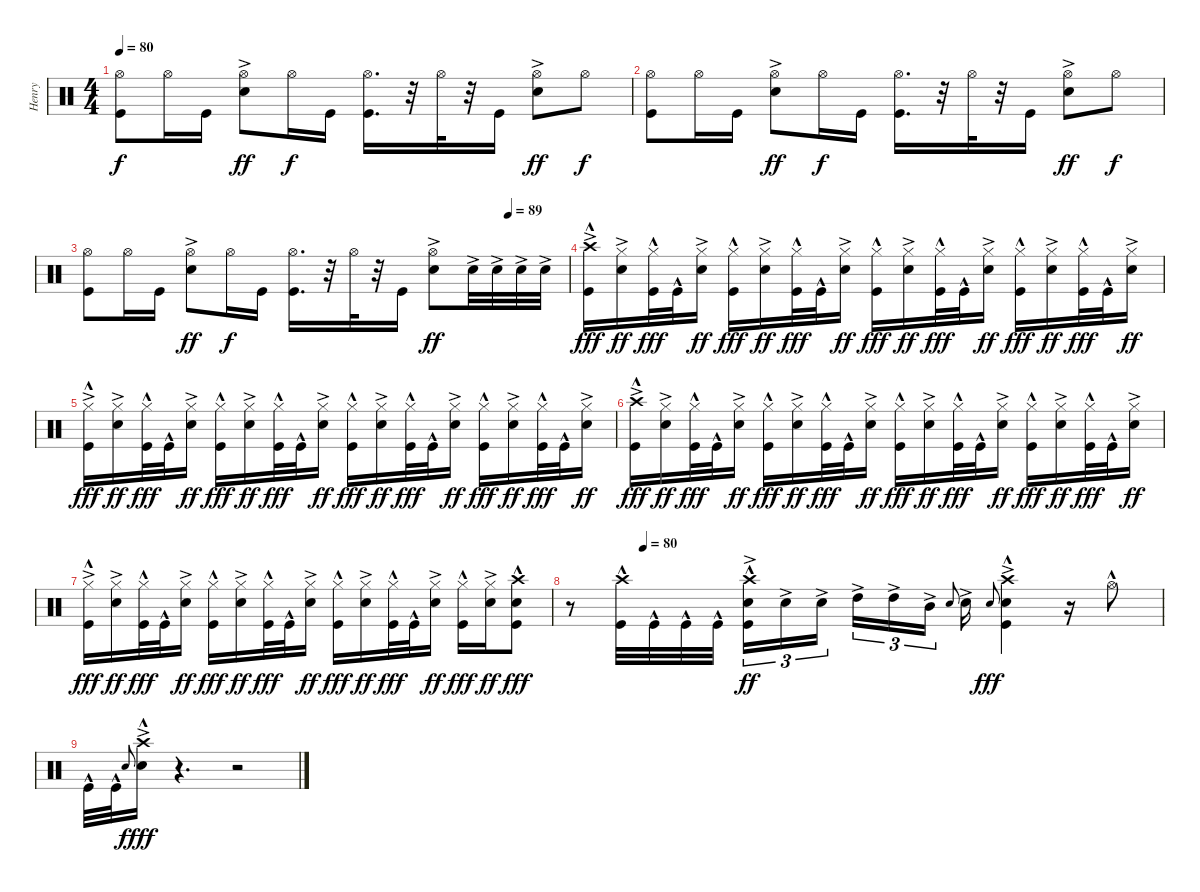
\track ("Henry" "Henry") {instrument percussion}
\staff {score}
\articulation defaults
\ts (4 4)
\tempo 80
\clef neutral
\ks c
("Hi-Hat (open)" "Kick (hit)").8{dy f} "Hi-Hat (open)".16 "Kick (hit)".16 ("Hi-Hat (open)" "Snare (hit) 2"{ac}).8{dy ff} "Hi-Hat (open)".16{dy f} "Kick (hit)".16 ("Hi-Hat (open)" "Kick (hit)").16{d} r.32 "Hi-Hat (open)".32 r.32 "Kick (hit)".16 ("Hi-Hat (open)" "Snare (hit) 2"{ac}).8{dy ff} "Hi-Hat (open)".8{dy f} |
("Hi-Hat (open)" "Kick (hit)").8 "Hi-Hat (open)".16 "Kick (hit)".16 ("Hi-Hat (open)" "Snare (hit) 2"{ac}).8{dy ff} "Hi-Hat (open)".16{dy f} "Kick (hit)".16 ("Hi-Hat (open)" "Kick (hit)").16{d} r.32 "Hi-Hat (open)".32 r.32 "Kick (hit)".16 ("Hi-Hat (open)" "Snare (hit) 2"{ac}).8{dy ff} "Hi-Hat (open)".8{dy f} |
\tempo (89 0.875)
("Hi-Hat (open)" "Kick (hit)").8 "Hi-Hat (open)".16 "Kick (hit)".16 ("Hi-Hat (open)" "Snare (hit) 2"{ac}).8{dy ff} "Hi-Hat (open)".16{dy f} "Kick (hit)".16 ("Hi-Hat (open)" "Kick (hit)").16{d} r.32 "Hi-Hat (open)".32 r.32 "Kick (hit)".16 ("Hi-Hat (open)" "Snare (hit) 2"{ac}).8{dy ff} "Snare (hit) 2"{ac}.32 "Snare (hit) 2"{ac}.32 "Snare (hit) 2"{ac}.32 "Snare (hit) 2"{ac}.32 |
("Crash high (hit)"{ac} "Kick (hit)"{hac}).16{dy fff} ("Hi-Hat (closed)" "Snare (hit) 2"{ac}).16{dy ff} ("Hi-Hat (closed)" "Kick (hit)"{hac}).32{dy fff} "Kick (hit)"{hac}.32 ("Hi-Hat (closed)" "Snare (hit) 2"{ac}).16{dy ff} ("Hi-Hat (closed)" "Kick (hit)"{hac}).16{dy fff} ("Hi-Hat (closed)" "Snare (hit) 2"{ac}).16{dy ff} ("Hi-Hat (closed)" "Kick (hit)"{hac}).32{dy fff} "Kick (hit)"{hac}.32 ("Hi-Hat (closed)" "Snare (hit) 2"{ac}).16{dy ff} ("Hi-Hat (closed)" "Kick (hit)"{hac}).16{dy fff} ("Hi-Hat (closed)" "Snare (hit) 2"{ac}).16{dy ff} ("Hi-Hat (closed)" "Kick (hit)"{hac}).32{dy fff} "Kick (hit)"{hac}.32 ("Hi-Hat (closed)" "Snare (hit) 2"{ac}).16{dy ff} ("Hi-Hat (closed)" "Kick (hit)"{hac}).16{dy fff} ("Hi-Hat (closed)" "Snare (hit) 2"{ac}).16{dy ff} ("Hi-Hat (closed)" "Kick (hit)"{hac}).32{dy fff} "Kick (hit)"{hac}.32 ("Hi-Hat (closed)" "Snare (hit) 2"{ac}).16{dy ff} |
("Hi-Hat (closed)"{ac} "Kick (hit)"{hac}).16{dy fff} ("Hi-Hat (closed)" "Snare (hit) 2"{ac}).16{dy ff} ("Hi-Hat (closed)" "Kick (hit)"{hac}).32{dy fff} "Kick (hit)"{hac}.32 ("Hi-Hat (closed)" "Snare (hit) 2"{ac}).16{dy ff} ("Hi-Hat (closed)" "Kick (hit)"{hac}).16{dy fff} ("Hi-Hat (closed)" "Snare (hit) 2"{ac}).16{dy ff} ("Hi-Hat (closed)" "Kick (hit)"{hac}).32{dy fff} "Kick (hit)"{hac}.32 ("Hi-Hat (closed)" "Snare (hit) 2"{ac}).16{dy ff} ("Hi-Hat (closed)" "Kick (hit)"{hac}).16{dy fff} ("Hi-Hat (closed)" "Snare (hit) 2"{ac}).16{dy ff} ("Hi-Hat (closed)" "Kick (hit)"{hac}).32{dy fff} "Kick (hit)"{hac}.32 ("Hi-Hat (closed)" "Snare (hit) 2"{ac}).16{dy ff} ("Hi-Hat (closed)" "Kick (hit)"{hac}).16{dy fff} ("Hi-Hat (closed)" "Snare (hit) 2"{ac}).16{dy ff} ("Hi-Hat (closed)" "Kick (hit)"{hac}).32{dy fff} "Kick (hit)"{hac}.32 ("Hi-Hat (closed)" "Snare (hit) 2"{ac}).16{dy ff} |
("Crash high (hit)"{ac} "Kick (hit)"{hac}).16{dy fff} ("Hi-Hat (closed)" "Snare (hit) 2"{ac}).16{dy ff} ("Hi-Hat (closed)" "Kick (hit)"{hac}).32{dy fff} "Kick (hit)"{hac}.32 ("Hi-Hat (closed)" "Snare (hit) 2"{ac}).16{dy ff} ("Hi-Hat (closed)" "Kick (hit)"{hac}).16{dy fff} ("Hi-Hat (closed)" "Snare (hit) 2"{ac}).16{dy ff} ("Hi-Hat (closed)" "Kick (hit)"{hac}).32{dy fff} "Kick (hit)"{hac}.32 ("Hi-Hat (closed)" "Snare (hit) 2"{ac}).16{dy ff} ("Hi-Hat (closed)" "Kick (hit)"{hac}).16{dy fff} ("Hi-Hat (closed)" "Snare (hit) 2"{ac}).16{dy ff} ("Hi-Hat (closed)" "Kick (hit)"{hac}).32{dy fff} "Kick (hit)"{hac}.32 ("Hi-Hat (closed)" "Snare (hit) 2"{ac}).16{dy ff} ("Hi-Hat (closed)" "Kick (hit)"{hac}).16{dy fff} ("Hi-Hat (closed)" "Snare (hit) 2"{ac}).16{dy ff} ("Hi-Hat (closed)" "Kick (hit)"{hac}).32{dy fff} "Kick (hit)"{hac}.32 ("Hi-Hat (closed)" "Snare (hit) 2"{ac}).16{dy ff} |
("Hi-Hat (closed)"{ac} "Kick (hit)"{hac}).16{dy fff} ("Hi-Hat (closed)" "Snare (hit) 2"{ac}).16{dy ff} ("Hi-Hat (closed)" "Kick (hit)"{hac}).32{dy fff} "Kick (hit)"{hac}.32 ("Hi-Hat (closed)" "Snare (hit) 2"{ac}).16{dy ff} ("Hi-Hat (closed)" "Kick (hit)"{hac}).16{dy fff} ("Hi-Hat (closed)" "Snare (hit) 2"{ac}).16{dy ff} ("Hi-Hat (closed)" "Kick (hit)"{hac}).32{dy fff} "Kick (hit)"{hac}.32 ("Hi-Hat (closed)" "Snare (hit) 2"{ac}).16{dy ff} ("Hi-Hat (closed)" "Kick (hit)"{hac}).16{dy fff} ("Hi-Hat (closed)" "Snare (hit) 2"{ac}).16{dy ff} ("Hi-Hat (closed)" "Kick (hit)"{hac}).32{dy fff} "Kick (hit)"{hac}.32 ("Hi-Hat (closed)" "Snare (hit) 2"{ac}).16{dy ff} ("Hi-Hat (closed)" "Kick (hit)"{hac}).16{dy fff} ("Hi-Hat (closed)" "Snare (hit) 2"{ac}).16{dy ff} ("Crash high (hit)"{hac} "Snare (hit) 2"{hac} "Kick (hit)"{hac}).8{dy fff} |
\tempo (80 0.125)
r.8 ("Crash high (hit)"{hac} "Kick (hit)"{hac}).32 "Kick (hit)"{hac}.32 "Kick (hit)"{hac}.32 "Kick (hit)"{hac}.32 ("Crash high (hit)"{hac} "Snare (hit) 2"{ac} "Kick (hit)"{ac}).16{tu (3 2) dy ff} "Snare (hit) 2"{ac}.16{tu (3 2)} "Snare (hit) 2"{ac}.16{tu (3 2) beam splitsecondary} "High Tom (hit)"{ac}.16{tu (3 2)} "High Tom (hit)"{ac}.16{tu (3 2)} "Mid Tom (hit)"{ac}.16{tu (3 2)} "Snare (hit) 2".8{gr onbeat} "Snare (hit) 2"{ac}.16 "Snare (hit) 2".8{gr onbeat dy fff} ("Crash high (hit)"{ac} "Snare (hit) 2"{hac} "Kick (hit)").4 r.16 "Hi-Hat (open)"{hac}.8 |
"Kick (hit)"{hac}.32 "Kick (hit)"{hac}.32 "Snare (hit) 2".8{gr onbeat dy f} ("Crash high (hit)"{ac} "Snare (hit) 2"{hac}).16{dy fff} r.4{d} r.2
